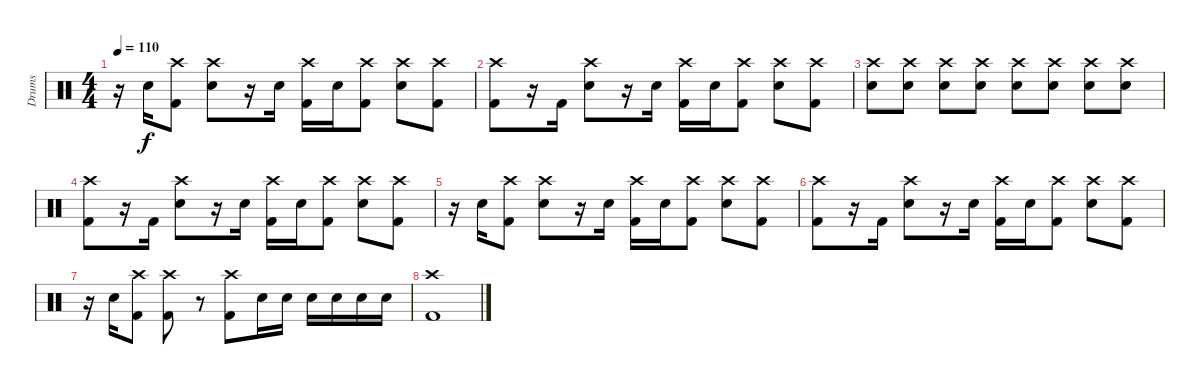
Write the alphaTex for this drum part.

\track ("Drums" "Drums") {instrument percussion}
\staff {score}
\articulation defaults
\ts (4 4)
\tempo 110
\clef neutral
\ks c
r.16{dy f} "Electric Snare (hit)".16 ("Crash high (hit)" "Kick (hit) 2").8 ("Crash high (hit)" "Electric Snare (hit)").8 r.16 "Electric Snare (hit)".16 ("Crash high (hit)" "Kick (hit) 2").16 "Electric Snare (hit)".16 ("Crash high (hit)" "Kick (hit) 2").8 ("Crash high (hit)" "Electric Snare (hit)").8 ("Crash high (hit)" "Kick (hit) 2").8 |
("Crash high (hit)" "Kick (hit) 2").8 r.16 "Kick (hit) 2".16 ("Crash high (hit)" "Electric Snare (hit)").8 r.16 "Electric Snare (hit)".16 ("Crash high (hit)" "Kick (hit) 2").16 "Electric Snare (hit)".16 ("Crash high (hit)" "Kick (hit) 2").8 ("Crash high (hit)" "Electric Snare (hit)").8 ("Crash high (hit)" "Kick (hit) 2").8 |
("Crash high (hit)" "Electric Snare (hit)").8 ("Crash high (hit)" "Electric Snare (hit)").8 ("Crash high (hit)" "Electric Snare (hit)").8 ("Crash high (hit)" "Electric Snare (hit)").8 ("Crash high (hit)" "Electric Snare (hit)").8 ("Crash high (hit)" "Electric Snare (hit)").8 ("Crash high (hit)" "Electric Snare (hit)").8 ("Crash high (hit)" "Electric Snare (hit)").8 |
("Crash high (hit)" "Kick (hit) 2").8 r.16 "Kick (hit) 2".16 ("Crash high (hit)" "Electric Snare (hit)").8 r.16 "Electric Snare (hit)".16 ("Crash high (hit)" "Kick (hit) 2").16 "Electric Snare (hit)".16 ("Crash high (hit)" "Kick (hit) 2").8 ("Crash high (hit)" "Electric Snare (hit)").8 ("Crash high (hit)" "Kick (hit) 2").8 |
r.16 "Electric Snare (hit)".16 ("Crash high (hit)" "Kick (hit) 2").8 ("Crash high (hit)" "Electric Snare (hit)").8 r.16 "Electric Snare (hit)".16 ("Crash high (hit)" "Kick (hit) 2").16 "Electric Snare (hit)".16 ("Crash high (hit)" "Kick (hit) 2").8 ("Crash high (hit)" "Electric Snare (hit)").8 ("Crash high (hit)" "Kick (hit) 2").8 |
("Crash high (hit)" "Kick (hit) 2").8 r.16 "Kick (hit) 2".16 ("Crash high (hit)" "Electric Snare (hit)").8 r.16 "Electric Snare (hit)".16 ("Crash high (hit)" "Kick (hit) 2").16 "Electric Snare (hit)".16 ("Crash high (hit)" "Kick (hit) 2").8 ("Crash high (hit)" "Electric Snare (hit)").8 ("Crash high (hit)" "Kick (hit) 2").8 |
r.16 "Electric Snare (hit)".16 ("Crash high (hit)" "Kick (hit) 2").8 ("Crash high (hit)" "Kick (hit) 2").8 r.8 ("Crash high (hit)" "Kick (hit) 2").8 "Electric Snare (hit)".16 "Electric Snare (hit)".16 "Electric Snare (hit)".16 "Electric Snare (hit)".16 "Electric Snare (hit)".16 "Electric Snare (hit)".16 |
("Crash high (hit)" "Kick (hit) 2").1
